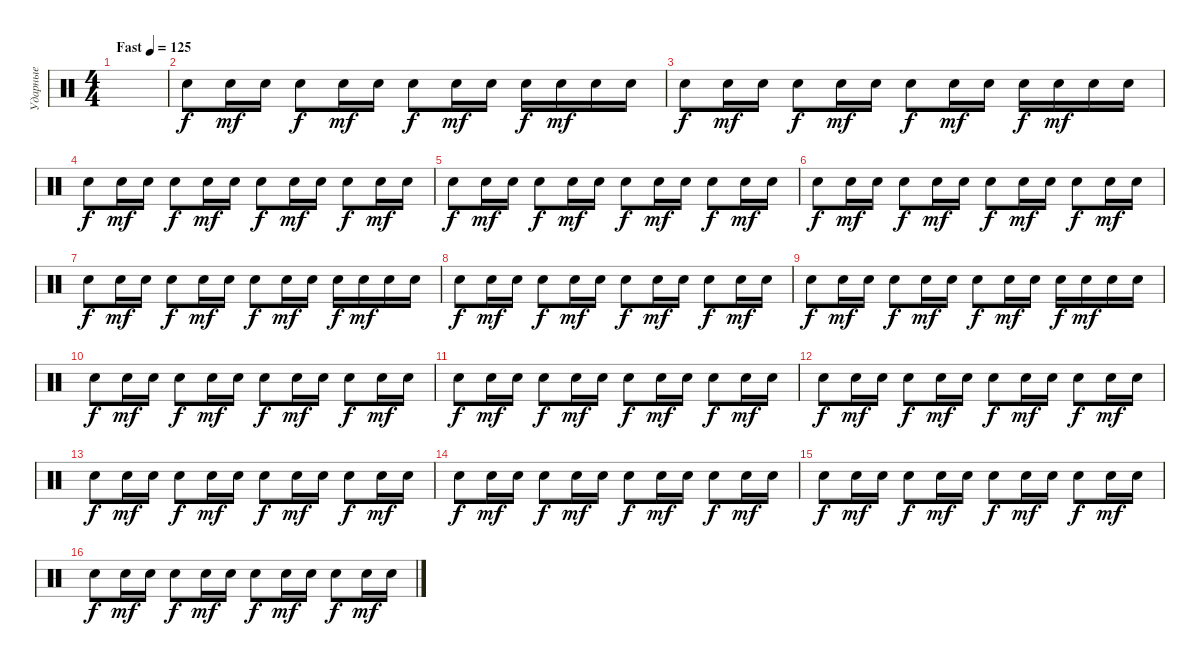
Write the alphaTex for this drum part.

\track ("Ударные" "Ударные") {instrument percussion}
\staff {score}
\articulation defaults
\ts (4 4)
\tempo (125 "Fast")
\clef neutral
\ks c
|
"Electric Snare (hit)".8 "Electric Snare (hit)".16{dy mf} "Electric Snare (hit)".16 "Electric Snare (hit)".8{dy f} "Electric Snare (hit)".16{dy mf} "Electric Snare (hit)".16 "Electric Snare (hit)".8{dy f} "Electric Snare (hit)".16{dy mf} "Electric Snare (hit)".16 "Electric Snare (hit)".16{dy f} "Electric Snare (hit)".16{dy mf} "Electric Snare (hit)".16 "Electric Snare (hit)".16 |
"Electric Snare (hit)".8{dy f} "Electric Snare (hit)".16{dy mf} "Electric Snare (hit)".16 "Electric Snare (hit)".8{dy f} "Electric Snare (hit)".16{dy mf} "Electric Snare (hit)".16 "Electric Snare (hit)".8{dy f} "Electric Snare (hit)".16{dy mf} "Electric Snare (hit)".16 "Electric Snare (hit)".16{dy f} "Electric Snare (hit)".16{dy mf} "Electric Snare (hit)".16 "Electric Snare (hit)".16 |
"Electric Snare (hit)".8{dy f} "Electric Snare (hit)".16{dy mf} "Electric Snare (hit)".16 "Electric Snare (hit)".8{dy f} "Electric Snare (hit)".16{dy mf} "Electric Snare (hit)".16 "Electric Snare (hit)".8{dy f} "Electric Snare (hit)".16{dy mf} "Electric Snare (hit)".16 "Electric Snare (hit)".8{dy f} "Electric Snare (hit)".16{dy mf} "Electric Snare (hit)".16 |
"Electric Snare (hit)".8{dy f} "Electric Snare (hit)".16{dy mf} "Electric Snare (hit)".16 "Electric Snare (hit)".8{dy f} "Electric Snare (hit)".16{dy mf} "Electric Snare (hit)".16 "Electric Snare (hit)".8{dy f} "Electric Snare (hit)".16{dy mf} "Electric Snare (hit)".16 "Electric Snare (hit)".8{dy f} "Electric Snare (hit)".16{dy mf} "Electric Snare (hit)".16 |
"Electric Snare (hit)".8{dy f} "Electric Snare (hit)".16{dy mf} "Electric Snare (hit)".16 "Electric Snare (hit)".8{dy f} "Electric Snare (hit)".16{dy mf} "Electric Snare (hit)".16 "Electric Snare (hit)".8{dy f} "Electric Snare (hit)".16{dy mf} "Electric Snare (hit)".16 "Electric Snare (hit)".8{dy f} "Electric Snare (hit)".16{dy mf} "Electric Snare (hit)".16 |
"Electric Snare (hit)".8{dy f} "Electric Snare (hit)".16{dy mf} "Electric Snare (hit)".16 "Electric Snare (hit)".8{dy f} "Electric Snare (hit)".16{dy mf} "Electric Snare (hit)".16 "Electric Snare (hit)".8{dy f} "Electric Snare (hit)".16{dy mf} "Electric Snare (hit)".16 "Electric Snare (hit)".16{dy f} "Electric Snare (hit)".16{dy mf} "Electric Snare (hit)".16 "Electric Snare (hit)".16 |
"Electric Snare (hit)".8{dy f} "Electric Snare (hit)".16{dy mf} "Electric Snare (hit)".16 "Electric Snare (hit)".8{dy f} "Electric Snare (hit)".16{dy mf} "Electric Snare (hit)".16 "Electric Snare (hit)".8{dy f} "Electric Snare (hit)".16{dy mf} "Electric Snare (hit)".16 "Electric Snare (hit)".8{dy f} "Electric Snare (hit)".16{dy mf} "Electric Snare (hit)".16 |
"Electric Snare (hit)".8{dy f} "Electric Snare (hit)".16{dy mf} "Electric Snare (hit)".16 "Electric Snare (hit)".8{dy f} "Electric Snare (hit)".16{dy mf} "Electric Snare (hit)".16 "Electric Snare (hit)".8{dy f} "Electric Snare (hit)".16{dy mf} "Electric Snare (hit)".16 "Electric Snare (hit)".16{dy f} "Electric Snare (hit)".16{dy mf} "Electric Snare (hit)".16 "Electric Snare (hit)".16 |
"Electric Snare (hit)".8{dy f} "Electric Snare (hit)".16{dy mf} "Electric Snare (hit)".16 "Electric Snare (hit)".8{dy f} "Electric Snare (hit)".16{dy mf} "Electric Snare (hit)".16 "Electric Snare (hit)".8{dy f} "Electric Snare (hit)".16{dy mf} "Electric Snare (hit)".16 "Electric Snare (hit)".8{dy f} "Electric Snare (hit)".16{dy mf} "Electric Snare (hit)".16 |
"Electric Snare (hit)".8{dy f} "Electric Snare (hit)".16{dy mf} "Electric Snare (hit)".16 "Electric Snare (hit)".8{dy f} "Electric Snare (hit)".16{dy mf} "Electric Snare (hit)".16 "Electric Snare (hit)".8{dy f} "Electric Snare (hit)".16{dy mf} "Electric Snare (hit)".16 "Electric Snare (hit)".8{dy f} "Electric Snare (hit)".16{dy mf} "Electric Snare (hit)".16 |
"Electric Snare (hit)".8{dy f} "Electric Snare (hit)".16{dy mf} "Electric Snare (hit)".16 "Electric Snare (hit)".8{dy f} "Electric Snare (hit)".16{dy mf} "Electric Snare (hit)".16 "Electric Snare (hit)".8{dy f} "Electric Snare (hit)".16{dy mf} "Electric Snare (hit)".16 "Electric Snare (hit)".8{dy f} "Electric Snare (hit)".16{dy mf} "Electric Snare (hit)".16 |
"Electric Snare (hit)".8{dy f} "Electric Snare (hit)".16{dy mf} "Electric Snare (hit)".16 "Electric Snare (hit)".8{dy f} "Electric Snare (hit)".16{dy mf} "Electric Snare (hit)".16 "Electric Snare (hit)".8{dy f} "Electric Snare (hit)".16{dy mf} "Electric Snare (hit)".16 "Electric Snare (hit)".8{dy f} "Electric Snare (hit)".16{dy mf} "Electric Snare (hit)".16 |
"Electric Snare (hit)".8{dy f} "Electric Snare (hit)".16{dy mf} "Electric Snare (hit)".16 "Electric Snare (hit)".8{dy f} "Electric Snare (hit)".16{dy mf} "Electric Snare (hit)".16 "Electric Snare (hit)".8{dy f} "Electric Snare (hit)".16{dy mf} "Electric Snare (hit)".16 "Electric Snare (hit)".8{dy f} "Electric Snare (hit)".16{dy mf} "Electric Snare (hit)".16 |
"Electric Snare (hit)".8{dy f} "Electric Snare (hit)".16{dy mf} "Electric Snare (hit)".16 "Electric Snare (hit)".8{dy f} "Electric Snare (hit)".16{dy mf} "Electric Snare (hit)".16 "Electric Snare (hit)".8{dy f} "Electric Snare (hit)".16{dy mf} "Electric Snare (hit)".16 "Electric Snare (hit)".8{dy f} "Electric Snare (hit)".16{dy mf} "Electric Snare (hit)".16 |
"Electric Snare (hit)".8{dy f} "Electric Snare (hit)".16{dy mf} "Electric Snare (hit)".16 "Electric Snare (hit)".8{dy f} "Electric Snare (hit)".16{dy mf} "Electric Snare (hit)".16 "Electric Snare (hit)".8{dy f} "Electric Snare (hit)".16{dy mf} "Electric Snare (hit)".16 "Electric Snare (hit)".8{dy f} "Electric Snare (hit)".16{dy mf} "Electric Snare (hit)".16
